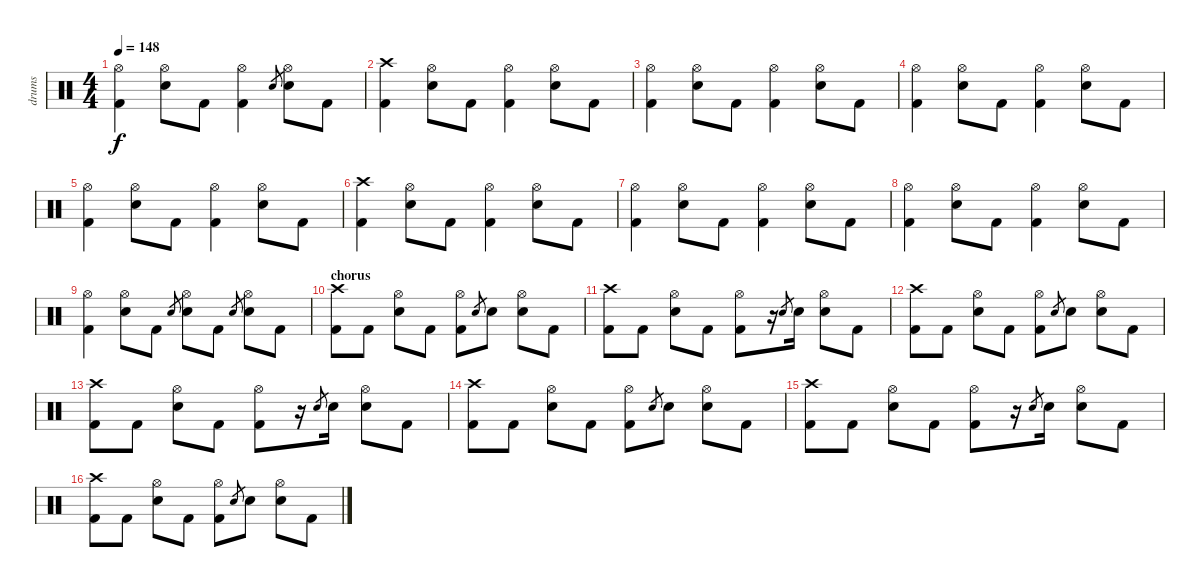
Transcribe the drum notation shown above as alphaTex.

\track ("drums" "drums") {instrument percussion}
\staff {score}
\articulation defaults
\ts (4 4)
\tempo 148
\clef neutral
\ks c
("Hi-Hat (open)" "Kick (hit) 2").4{dy f} ("Hi-Hat (open)" "Electric Snare (hit)").8 "Kick (hit) 2".8 ("Hi-Hat (open)" "Kick (hit) 2").4 "Electric Snare (hit)".8{gr} ("Hi-Hat (open)" "Electric Snare (hit)").8 "Kick (hit) 2".8 |
("Crash high (hit)" "Kick (hit) 2").4 ("Hi-Hat (open)" "Electric Snare (hit)").8 "Kick (hit) 2".8 ("Hi-Hat (open)" "Kick (hit) 2").4 ("Hi-Hat (open)" "Electric Snare (hit)").8 "Kick (hit) 2".8 |
("Hi-Hat (open)" "Kick (hit) 2").4 ("Hi-Hat (open)" "Electric Snare (hit)").8 "Kick (hit) 2".8 ("Hi-Hat (open)" "Kick (hit) 2").4 ("Hi-Hat (open)" "Electric Snare (hit)").8 "Kick (hit) 2".8 |
("Hi-Hat (open)" "Kick (hit) 2").4 ("Hi-Hat (open)" "Electric Snare (hit)").8 "Kick (hit) 2".8 ("Hi-Hat (open)" "Kick (hit) 2").4 ("Hi-Hat (open)" "Electric Snare (hit)").8 "Kick (hit) 2".8 |
("Hi-Hat (open)" "Kick (hit) 2").4 ("Hi-Hat (open)" "Electric Snare (hit)").8 "Kick (hit) 2".8 ("Hi-Hat (open)" "Kick (hit) 2").4 ("Hi-Hat (open)" "Electric Snare (hit)").8 "Kick (hit) 2".8 |
("Crash high (hit)" "Kick (hit) 2").4 ("Hi-Hat (open)" "Electric Snare (hit)").8 "Kick (hit) 2".8 ("Hi-Hat (open)" "Kick (hit) 2").4 ("Hi-Hat (open)" "Electric Snare (hit)").8 "Kick (hit) 2".8 |
("Hi-Hat (open)" "Kick (hit) 2").4 ("Hi-Hat (open)" "Electric Snare (hit)").8 "Kick (hit) 2".8 ("Hi-Hat (open)" "Kick (hit) 2").4 ("Hi-Hat (open)" "Electric Snare (hit)").8 "Kick (hit) 2".8 |
("Hi-Hat (open)" "Kick (hit) 2").4 ("Hi-Hat (open)" "Electric Snare (hit)").8 "Kick (hit) 2".8 ("Hi-Hat (open)" "Kick (hit) 2").4 ("Hi-Hat (open)" "Electric Snare (hit)").8 "Kick (hit) 2".8 |
("Hi-Hat (open)" "Kick (hit) 2").4 ("Hi-Hat (open)" "Electric Snare (hit)").8 "Kick (hit) 2".8 "Electric Snare (hit)".8{gr} ("Hi-Hat (open)" "Electric Snare (hit)").8 "Kick (hit) 2".8 "Electric Snare (hit)".8{gr} ("Hi-Hat (open)" "Electric Snare (hit)").8 "Kick (hit) 2".8 |
\section ("" "chorus")
("Crash high (hit)" "Kick (hit) 2").8 "Kick (hit) 2".8 ("Hi-Hat (open)" "Electric Snare (hit)").8 "Kick (hit) 2".8 ("Hi-Hat (open)" "Kick (hit) 2").8 "Electric Snare (hit)".8{gr} "Electric Snare (hit)".8 ("Hi-Hat (open)" "Electric Snare (hit)").8 "Kick (hit) 2".8 |
("Crash high (hit)" "Kick (hit) 2").8 "Kick (hit) 2".8 ("Hi-Hat (open)" "Electric Snare (hit)").8 "Kick (hit) 2".8 ("Hi-Hat (open)" "Kick (hit) 2").8 r.16 "Electric Snare (hit)".8{gr} "Electric Snare (hit)".16 ("Hi-Hat (open)" "Electric Snare (hit)").8 "Kick (hit) 2".8 |
("Crash high (hit)" "Kick (hit) 2").8 "Kick (hit) 2".8 ("Hi-Hat (open)" "Electric Snare (hit)").8 "Kick (hit) 2".8 ("Hi-Hat (open)" "Kick (hit) 2").8 "Electric Snare (hit)".8{gr} "Electric Snare (hit)".8 ("Hi-Hat (open)" "Electric Snare (hit)").8 "Kick (hit) 2".8 |
("Crash high (hit)" "Kick (hit) 2").8 "Kick (hit) 2".8 ("Hi-Hat (open)" "Electric Snare (hit)").8 "Kick (hit) 2".8 ("Hi-Hat (open)" "Kick (hit) 2").8 r.16 "Electric Snare (hit)".8{gr} "Electric Snare (hit)".16 ("Hi-Hat (open)" "Electric Snare (hit)").8 "Kick (hit) 2".8 |
("Crash high (hit)" "Kick (hit) 2").8 "Kick (hit) 2".8 ("Hi-Hat (open)" "Electric Snare (hit)").8 "Kick (hit) 2".8 ("Hi-Hat (open)" "Kick (hit) 2").8 "Electric Snare (hit)".8{gr} "Electric Snare (hit)".8 ("Hi-Hat (open)" "Electric Snare (hit)").8 "Kick (hit) 2".8 |
("Crash high (hit)" "Kick (hit) 2").8 "Kick (hit) 2".8 ("Hi-Hat (open)" "Electric Snare (hit)").8 "Kick (hit) 2".8 ("Hi-Hat (open)" "Kick (hit) 2").8 r.16 "Electric Snare (hit)".8{gr} "Electric Snare (hit)".16 ("Hi-Hat (open)" "Electric Snare (hit)").8 "Kick (hit) 2".8 |
("Crash high (hit)" "Kick (hit) 2").8 "Kick (hit) 2".8 ("Hi-Hat (open)" "Electric Snare (hit)").8 "Kick (hit) 2".8 ("Hi-Hat (open)" "Kick (hit) 2").8 "Electric Snare (hit)".8{gr} "Electric Snare (hit)".8 ("Hi-Hat (open)" "Electric Snare (hit)").8 "Kick (hit) 2".8
